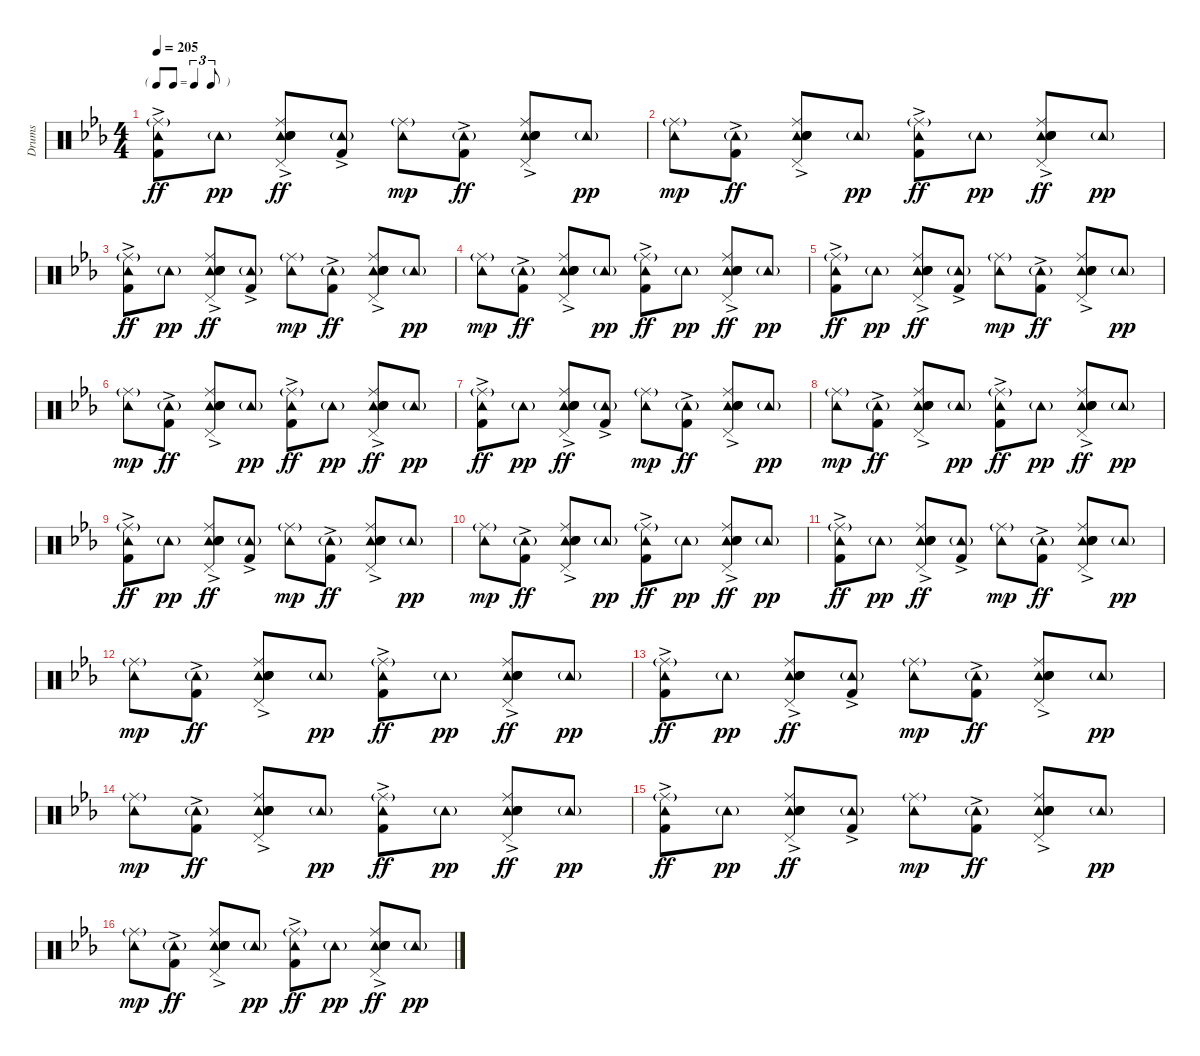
\track ("Drums" "Drums") {instrument percussion}
\staff {score}
\articulation defaults
\ts (4 4)
\tf triplet8th
\tempo 205
\clef neutral
\ks eb
("Ride (middle)"{g} "Tambourine (hit)" "Kick (hit) 2"{ac}).8{dy ff} "Tambourine (hit)"{g}.8{dy pp} ("Ride (middle)" "Tambourine (hit)"{ac} "Hand Clap (hit)" "Electric Snare (hit)"{ac} "Snare (hit) 2" "Pedal Hi-Hat (hit)").8{dy ff} ("Tambourine (hit)"{g} "Kick (hit) 2"{ac}).8 ("Ride (middle)"{g} "Tambourine (hit)").8{dy mp} ("Tambourine (hit)"{g} "Kick (hit) 2"{ac}).8{dy ff} ("Ride (middle)" "Tambourine (hit)"{ac} "Hand Clap (hit)" "Electric Snare (hit)"{ac} "Snare (hit) 2" "Pedal Hi-Hat (hit)").8 "Tambourine (hit)"{g}.8{dy pp} |
("Ride (middle)"{g} "Tambourine (hit)").8{dy mp} ("Tambourine (hit)"{g} "Kick (hit) 2"{ac}).8{dy ff} ("Ride (middle)" "Tambourine (hit)"{ac} "Hand Clap (hit)" "Electric Snare (hit)"{ac} "Snare (hit) 2" "Pedal Hi-Hat (hit)").8 "Tambourine (hit)"{g}.8{dy pp} ("Ride (middle)"{g} "Tambourine (hit)" "Kick (hit) 2"{ac}).8{dy ff} "Tambourine (hit)"{g}.8{dy pp} ("Ride (middle)" "Tambourine (hit)"{ac} "Hand Clap (hit)" "Electric Snare (hit)"{ac} "Snare (hit) 2" "Pedal Hi-Hat (hit)").8{dy ff} "Tambourine (hit)"{g}.8{dy pp} |
("Ride (middle)"{g} "Tambourine (hit)" "Kick (hit) 2"{ac}).8{dy ff} "Tambourine (hit)"{g}.8{dy pp} ("Ride (middle)" "Tambourine (hit)"{ac} "Hand Clap (hit)" "Electric Snare (hit)"{ac} "Snare (hit) 2" "Pedal Hi-Hat (hit)").8{dy ff} ("Tambourine (hit)"{g} "Kick (hit) 2"{ac}).8 ("Ride (middle)"{g} "Tambourine (hit)").8{dy mp} ("Tambourine (hit)"{g} "Kick (hit) 2"{ac}).8{dy ff} ("Ride (middle)" "Tambourine (hit)"{ac} "Hand Clap (hit)" "Electric Snare (hit)"{ac} "Snare (hit) 2" "Pedal Hi-Hat (hit)").8 "Tambourine (hit)"{g}.8{dy pp} |
("Ride (middle)"{g} "Tambourine (hit)").8{dy mp} ("Tambourine (hit)"{g} "Kick (hit) 2"{ac}).8{dy ff} ("Ride (middle)" "Tambourine (hit)"{ac} "Hand Clap (hit)" "Electric Snare (hit)"{ac} "Snare (hit) 2" "Pedal Hi-Hat (hit)").8 "Tambourine (hit)"{g}.8{dy pp} ("Ride (middle)"{g} "Tambourine (hit)" "Kick (hit) 2"{ac}).8{dy ff} "Tambourine (hit)"{g}.8{dy pp} ("Ride (middle)" "Tambourine (hit)"{ac} "Hand Clap (hit)" "Electric Snare (hit)"{ac} "Snare (hit) 2" "Pedal Hi-Hat (hit)").8{dy ff} "Tambourine (hit)"{g}.8{dy pp} |
("Ride (middle)"{g} "Tambourine (hit)" "Kick (hit) 2"{ac}).8{dy ff} "Tambourine (hit)"{g}.8{dy pp} ("Ride (middle)" "Tambourine (hit)"{ac} "Hand Clap (hit)" "Electric Snare (hit)"{ac} "Snare (hit) 2" "Pedal Hi-Hat (hit)").8{dy ff} ("Tambourine (hit)"{g} "Kick (hit) 2"{ac}).8 ("Ride (middle)"{g} "Tambourine (hit)").8{dy mp} ("Tambourine (hit)"{g} "Kick (hit) 2"{ac}).8{dy ff} ("Ride (middle)" "Tambourine (hit)"{ac} "Hand Clap (hit)" "Electric Snare (hit)"{ac} "Snare (hit) 2" "Pedal Hi-Hat (hit)").8 "Tambourine (hit)"{g}.8{dy pp} |
("Ride (middle)"{g} "Tambourine (hit)").8{dy mp} ("Tambourine (hit)"{g} "Kick (hit) 2"{ac}).8{dy ff} ("Ride (middle)" "Tambourine (hit)"{ac} "Hand Clap (hit)" "Electric Snare (hit)"{ac} "Snare (hit) 2" "Pedal Hi-Hat (hit)").8 "Tambourine (hit)"{g}.8{dy pp} ("Ride (middle)"{g} "Tambourine (hit)" "Kick (hit) 2"{ac}).8{dy ff} "Tambourine (hit)"{g}.8{dy pp} ("Ride (middle)" "Tambourine (hit)"{ac} "Hand Clap (hit)" "Electric Snare (hit)"{ac} "Snare (hit) 2" "Pedal Hi-Hat (hit)").8{dy ff} "Tambourine (hit)"{g}.8{dy pp} |
("Ride (middle)"{g} "Tambourine (hit)" "Kick (hit) 2"{ac}).8{dy ff} "Tambourine (hit)"{g}.8{dy pp} ("Ride (middle)" "Tambourine (hit)"{ac} "Hand Clap (hit)" "Electric Snare (hit)"{ac} "Snare (hit) 2" "Pedal Hi-Hat (hit)").8{dy ff} ("Tambourine (hit)"{g} "Kick (hit) 2"{ac}).8 ("Ride (middle)"{g} "Tambourine (hit)").8{dy mp} ("Tambourine (hit)"{g} "Kick (hit) 2"{ac}).8{dy ff} ("Ride (middle)" "Tambourine (hit)"{ac} "Hand Clap (hit)" "Electric Snare (hit)"{ac} "Snare (hit) 2" "Pedal Hi-Hat (hit)").8 "Tambourine (hit)"{g}.8{dy pp} |
("Ride (middle)"{g} "Tambourine (hit)").8{dy mp} ("Tambourine (hit)"{g} "Kick (hit) 2"{ac}).8{dy ff} ("Ride (middle)" "Tambourine (hit)"{ac} "Hand Clap (hit)" "Electric Snare (hit)"{ac} "Snare (hit) 2" "Pedal Hi-Hat (hit)").8 "Tambourine (hit)"{g}.8{dy pp} ("Ride (middle)"{g} "Tambourine (hit)" "Kick (hit) 2"{ac}).8{dy ff} "Tambourine (hit)"{g}.8{dy pp} ("Ride (middle)" "Tambourine (hit)"{ac} "Hand Clap (hit)" "Electric Snare (hit)"{ac} "Snare (hit) 2" "Pedal Hi-Hat (hit)").8{dy ff} "Tambourine (hit)"{g}.8{dy pp} |
("Ride (middle)"{g} "Tambourine (hit)" "Kick (hit) 2"{ac}).8{dy ff} "Tambourine (hit)"{g}.8{dy pp} ("Ride (middle)" "Tambourine (hit)"{ac} "Hand Clap (hit)" "Electric Snare (hit)"{ac} "Snare (hit) 2" "Pedal Hi-Hat (hit)").8{dy ff} ("Tambourine (hit)"{g} "Kick (hit) 2"{ac}).8 ("Ride (middle)"{g} "Tambourine (hit)").8{dy mp} ("Tambourine (hit)"{g} "Kick (hit) 2"{ac}).8{dy ff} ("Ride (middle)" "Tambourine (hit)"{ac} "Hand Clap (hit)" "Electric Snare (hit)"{ac} "Snare (hit) 2" "Pedal Hi-Hat (hit)").8 "Tambourine (hit)"{g}.8{dy pp} |
("Ride (middle)"{g} "Tambourine (hit)").8{dy mp} ("Tambourine (hit)"{g} "Kick (hit) 2"{ac}).8{dy ff} ("Ride (middle)" "Tambourine (hit)"{ac} "Hand Clap (hit)" "Electric Snare (hit)"{ac} "Snare (hit) 2" "Pedal Hi-Hat (hit)").8 "Tambourine (hit)"{g}.8{dy pp} ("Ride (middle)"{g} "Tambourine (hit)" "Kick (hit) 2"{ac}).8{dy ff} "Tambourine (hit)"{g}.8{dy pp} ("Ride (middle)" "Tambourine (hit)"{ac} "Hand Clap (hit)" "Electric Snare (hit)"{ac} "Snare (hit) 2" "Pedal Hi-Hat (hit)").8{dy ff} "Tambourine (hit)"{g}.8{dy pp} |
("Ride (middle)"{g} "Tambourine (hit)" "Kick (hit) 2"{ac}).8{dy ff} "Tambourine (hit)"{g}.8{dy pp} ("Ride (middle)" "Tambourine (hit)"{ac} "Hand Clap (hit)" "Electric Snare (hit)"{ac} "Snare (hit) 2" "Pedal Hi-Hat (hit)").8{dy ff} ("Tambourine (hit)"{g} "Kick (hit) 2"{ac}).8 ("Ride (middle)"{g} "Tambourine (hit)").8{dy mp} ("Tambourine (hit)"{g} "Kick (hit) 2"{ac}).8{dy ff} ("Ride (middle)" "Tambourine (hit)"{ac} "Hand Clap (hit)" "Electric Snare (hit)"{ac} "Snare (hit) 2" "Pedal Hi-Hat (hit)").8 "Tambourine (hit)"{g}.8{dy pp} |
("Ride (middle)"{g} "Tambourine (hit)").8{dy mp} ("Tambourine (hit)"{g} "Kick (hit) 2"{ac}).8{dy ff} ("Ride (middle)" "Tambourine (hit)"{ac} "Hand Clap (hit)" "Electric Snare (hit)"{ac} "Snare (hit) 2" "Pedal Hi-Hat (hit)").8 "Tambourine (hit)"{g}.8{dy pp} ("Ride (middle)"{g} "Tambourine (hit)" "Kick (hit) 2"{ac}).8{dy ff} "Tambourine (hit)"{g}.8{dy pp} ("Ride (middle)" "Tambourine (hit)"{ac} "Hand Clap (hit)" "Electric Snare (hit)"{ac} "Snare (hit) 2" "Pedal Hi-Hat (hit)").8{dy ff} "Tambourine (hit)"{g}.8{dy pp} |
("Ride (middle)"{g} "Tambourine (hit)" "Kick (hit) 2"{ac}).8{dy ff} "Tambourine (hit)"{g}.8{dy pp} ("Ride (middle)" "Tambourine (hit)"{ac} "Hand Clap (hit)" "Electric Snare (hit)"{ac} "Snare (hit) 2" "Pedal Hi-Hat (hit)").8{dy ff} ("Tambourine (hit)"{g} "Kick (hit) 2"{ac}).8 ("Ride (middle)"{g} "Tambourine (hit)").8{dy mp} ("Tambourine (hit)"{g} "Kick (hit) 2"{ac}).8{dy ff} ("Ride (middle)" "Tambourine (hit)"{ac} "Hand Clap (hit)" "Electric Snare (hit)"{ac} "Snare (hit) 2" "Pedal Hi-Hat (hit)").8 "Tambourine (hit)"{g}.8{dy pp} |
("Ride (middle)"{g} "Tambourine (hit)").8{dy mp} ("Tambourine (hit)"{g} "Kick (hit) 2"{ac}).8{dy ff} ("Ride (middle)" "Tambourine (hit)"{ac} "Hand Clap (hit)" "Electric Snare (hit)"{ac} "Snare (hit) 2" "Pedal Hi-Hat (hit)").8 "Tambourine (hit)"{g}.8{dy pp} ("Ride (middle)"{g} "Tambourine (hit)" "Kick (hit) 2"{ac}).8{dy ff} "Tambourine (hit)"{g}.8{dy pp} ("Ride (middle)" "Tambourine (hit)"{ac} "Hand Clap (hit)" "Electric Snare (hit)"{ac} "Snare (hit) 2" "Pedal Hi-Hat (hit)").8{dy ff} "Tambourine (hit)"{g}.8{dy pp} |
("Ride (middle)"{g} "Tambourine (hit)" "Kick (hit) 2"{ac}).8{dy ff} "Tambourine (hit)"{g}.8{dy pp} ("Ride (middle)" "Tambourine (hit)"{ac} "Hand Clap (hit)" "Electric Snare (hit)"{ac} "Snare (hit) 2" "Pedal Hi-Hat (hit)").8{dy ff} ("Tambourine (hit)"{g} "Kick (hit) 2"{ac}).8 ("Ride (middle)"{g} "Tambourine (hit)").8{dy mp} ("Tambourine (hit)"{g} "Kick (hit) 2"{ac}).8{dy ff} ("Ride (middle)" "Tambourine (hit)"{ac} "Hand Clap (hit)" "Electric Snare (hit)"{ac} "Snare (hit) 2" "Pedal Hi-Hat (hit)").8 "Tambourine (hit)"{g}.8{dy pp} |
("Ride (middle)"{g} "Tambourine (hit)").8{dy mp} ("Tambourine (hit)"{g} "Kick (hit) 2"{ac}).8{dy ff} ("Ride (middle)" "Tambourine (hit)"{ac} "Hand Clap (hit)" "Electric Snare (hit)"{ac} "Snare (hit) 2" "Pedal Hi-Hat (hit)").8 "Tambourine (hit)"{g}.8{dy pp} ("Ride (middle)"{g} "Tambourine (hit)" "Kick (hit) 2"{ac}).8{dy ff} "Tambourine (hit)"{g}.8{dy pp} ("Ride (middle)" "Tambourine (hit)"{ac} "Hand Clap (hit)" "Electric Snare (hit)"{ac} "Snare (hit) 2" "Pedal Hi-Hat (hit)").8{dy ff} "Tambourine (hit)"{g}.8{dy pp}
